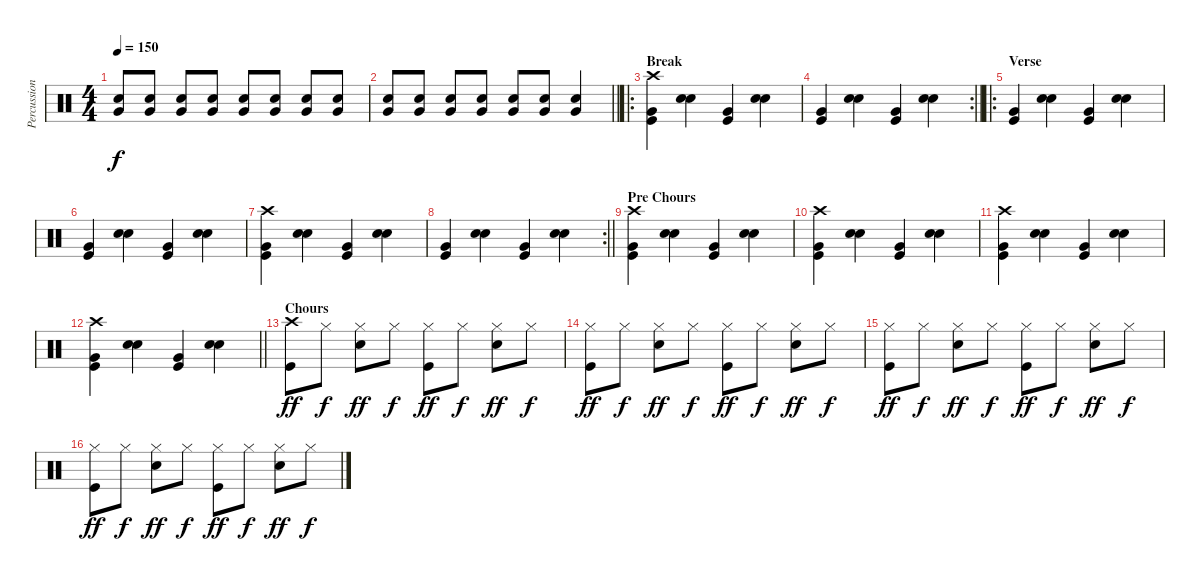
\track ("Percussion" "Percussion") {instrument percussion}
\staff {score}
\articulation defaults
\ts (4 4)
\tempo 150
\clef neutral
\ks c
("Snare (hit) 2" "Very Low Tom (hit)").8{dy f} ("Snare (hit) 2" "Very Low Tom (hit)").8 ("Snare (hit) 2" "Very Low Tom (hit)").8 ("Snare (hit) 2" "Very Low Tom (hit)").8 ("Snare (hit) 2" "Very Low Tom (hit)").8 ("Snare (hit) 2" "Very Low Tom (hit)").8 ("Snare (hit) 2" "Very Low Tom (hit)").8 ("Snare (hit) 2" "Very Low Tom (hit)").8 |
\barLineRight lightlight
("Snare (hit) 2" "Very Low Tom (hit)").8 ("Snare (hit) 2" "Very Low Tom (hit)").8 ("Snare (hit) 2" "Very Low Tom (hit)").8 ("Snare (hit) 2" "Very Low Tom (hit)").8 ("Snare (hit) 2" "Very Low Tom (hit)").8 ("Snare (hit) 2" "Very Low Tom (hit)").8 ("Snare (hit) 2" "Very Low Tom (hit)").4 |
\ro
\section ("" "Break")
("Kick (hit)" "Very Low Tom (hit)" "Crash high (hit)").4 ("Snare (hit) 2" "Snare (hit) 2").4 ("Kick (hit)" "Very Low Tom (hit)").4 ("Snare (hit) 2" "Snare (hit) 2").4 |
\rc 2
\barLineRight lightlight
("Kick (hit)" "Very Low Tom (hit)").4 ("Snare (hit) 2" "Snare (hit) 2").4 ("Kick (hit)" "Very Low Tom (hit)").4 ("Snare (hit) 2" "Snare (hit) 2").4 |
\ro
\section ("" "Verse")
("Kick (hit)" "Very Low Tom (hit)").4 ("Snare (hit) 2" "Snare (hit) 2").4 ("Kick (hit)" "Very Low Tom (hit)").4 ("Snare (hit) 2" "Snare (hit) 2").4 |
("Kick (hit)" "Very Low Tom (hit)").4 ("Snare (hit) 2" "Snare (hit) 2").4 ("Kick (hit)" "Very Low Tom (hit)").4 ("Snare (hit) 2" "Snare (hit) 2").4 |
("Kick (hit)" "Very Low Tom (hit)" "Crash high (hit)").4 ("Snare (hit) 2" "Snare (hit) 2").4 ("Kick (hit)" "Very Low Tom (hit)").4 ("Snare (hit) 2" "Snare (hit) 2").4 |
\rc 2
\barLineRight lightlight
("Kick (hit)" "Very Low Tom (hit)").4 ("Snare (hit) 2" "Snare (hit) 2").4 ("Kick (hit)" "Very Low Tom (hit)").4 ("Snare (hit) 2" "Snare (hit) 2").4 |
\section ("" "Pre Chours")
("Kick (hit)" "Very Low Tom (hit)" "Crash high (hit)").4 ("Snare (hit) 2" "Snare (hit) 2").4 ("Kick (hit)" "Very Low Tom (hit)").4 ("Snare (hit) 2" "Snare (hit) 2").4 |
("Kick (hit)" "Very Low Tom (hit)" "Crash high (hit)").4 ("Snare (hit) 2" "Snare (hit) 2").4 ("Kick (hit)" "Very Low Tom (hit)").4 ("Snare (hit) 2" "Snare (hit) 2").4 |
("Kick (hit)" "Very Low Tom (hit)" "Crash high (hit)").4 ("Snare (hit) 2" "Snare (hit) 2").4 ("Kick (hit)" "Very Low Tom (hit)").4 ("Snare (hit) 2" "Snare (hit) 2").4 |
\barLineRight lightlight
("Kick (hit)" "Very Low Tom (hit)" "Crash high (hit)").4 ("Snare (hit) 2" "Snare (hit) 2").4 ("Kick (hit)" "Very Low Tom (hit)").4 ("Snare (hit) 2" "Snare (hit) 2").4 |
\section ("" "Chours")
("Crash high (hit)" "Kick (hit)").8{dy ff} "Hi-Hat (closed)".8{dy f} ("Hi-Hat (closed)" "Snare (hit) 2").8{dy ff} "Hi-Hat (closed)".8{dy f} ("Hi-Hat (closed)" "Kick (hit)").8{dy ff} "Hi-Hat (closed)".8{dy f} ("Hi-Hat (closed)" "Snare (hit) 2").8{dy ff} "Hi-Hat (closed)".8{dy f} |
("Hi-Hat (closed)" "Kick (hit)").8{dy ff} "Hi-Hat (closed)".8{dy f} ("Hi-Hat (closed)" "Snare (hit) 2").8{dy ff} "Hi-Hat (closed)".8{dy f} ("Hi-Hat (closed)" "Kick (hit)").8{dy ff} "Hi-Hat (closed)".8{dy f} ("Hi-Hat (closed)" "Snare (hit) 2").8{dy ff} "Hi-Hat (closed)".8{dy f} |
("Hi-Hat (closed)" "Kick (hit)").8{dy ff} "Hi-Hat (closed)".8{dy f} ("Hi-Hat (closed)" "Snare (hit) 2").8{dy ff} "Hi-Hat (closed)".8{dy f} ("Hi-Hat (closed)" "Kick (hit)").8{dy ff} "Hi-Hat (closed)".8{dy f} ("Hi-Hat (closed)" "Snare (hit) 2").8{dy ff} "Hi-Hat (closed)".8{dy f} |
("Hi-Hat (closed)" "Kick (hit)").8{dy ff} "Hi-Hat (closed)".8{dy f} ("Hi-Hat (closed)" "Snare (hit) 2").8{dy ff} "Hi-Hat (closed)".8{dy f} ("Hi-Hat (closed)" "Kick (hit)").8{dy ff} "Hi-Hat (closed)".8{dy f} ("Hi-Hat (closed)" "Snare (hit) 2").8{dy ff} "Hi-Hat (closed)".8{dy f}
